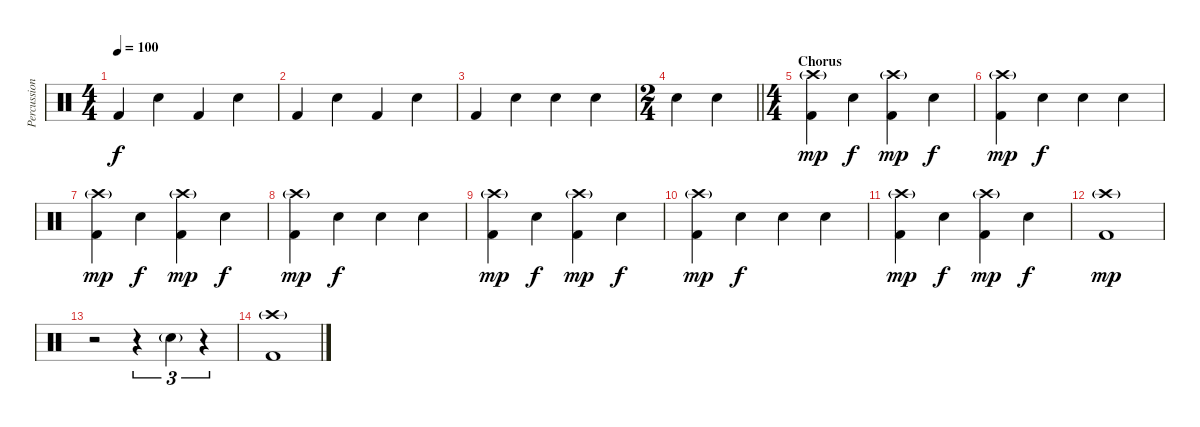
\track ("Percussion" "Percussion") {instrument percussion}
\staff {score}
\articulation defaults
\ts (4 4)
\tempo 100
\clef neutral
\ks c "Kick (hit) 2".4{dy f} "Snare (hit) 2".4 "Kick (hit) 2".4 "Snare (hit) 2".4
|
"Kick (hit) 2".4 "Snare (hit) 2".4 "Kick (hit) 2".4 "Snare (hit) 2".4 |
"Kick (hit) 2".4 "Snare (hit) 2".4 "Snare (hit) 2".4 "Snare (hit) 2".4 |
\ts (2 4)
\barLineRight lightlight "Snare (hit) 2".4 "Snare (hit) 2".4
|
\ts (4 4)
\section ("" "Chorus")
("Crash high (hit)"{g} "Kick (hit) 2").4{dy mp} "Snare (hit) 2".4{dy f} ("Crash high (hit)"{g} "Kick (hit) 2").4{dy mp} "Snare (hit) 2".4{dy f} |
("Crash high (hit)"{g} "Kick (hit) 2").4{dy mp} "Snare (hit) 2".4{dy f} "Snare (hit) 2".4 "Snare (hit) 2".4 |
("Crash high (hit)"{g} "Kick (hit) 2").4{dy mp} "Snare (hit) 2".4{dy f} ("Crash high (hit)"{g} "Kick (hit) 2").4{dy mp} "Snare (hit) 2".4{dy f} |
("Crash high (hit)"{g} "Kick (hit) 2").4{dy mp} "Snare (hit) 2".4{dy f} "Snare (hit) 2".4 "Snare (hit) 2".4 |
("Crash high (hit)"{g} "Kick (hit) 2").4{dy mp} "Snare (hit) 2".4{dy f} ("Crash high (hit)"{g} "Kick (hit) 2").4{dy mp} "Snare (hit) 2".4{dy f} |
("Crash high (hit)"{g} "Kick (hit) 2").4{dy mp} "Snare (hit) 2".4{dy f} "Snare (hit) 2".4 "Snare (hit) 2".4 |
("Crash high (hit)"{g} "Kick (hit) 2").4{dy mp} "Snare (hit) 2".4{dy f} ("Crash high (hit)"{g} "Kick (hit) 2").4{dy mp} "Snare (hit) 2".4{dy f} |
("Crash high (hit)"{g} "Kick (hit) 2").1{dy mp} |
r.2 r.4{tu (3 2)} "Snare (hit) 2"{g}.4{tu (3 2)} r.4{tu (3 2)} |
("Crash high (hit)"{g} "Kick (hit) 2").1
